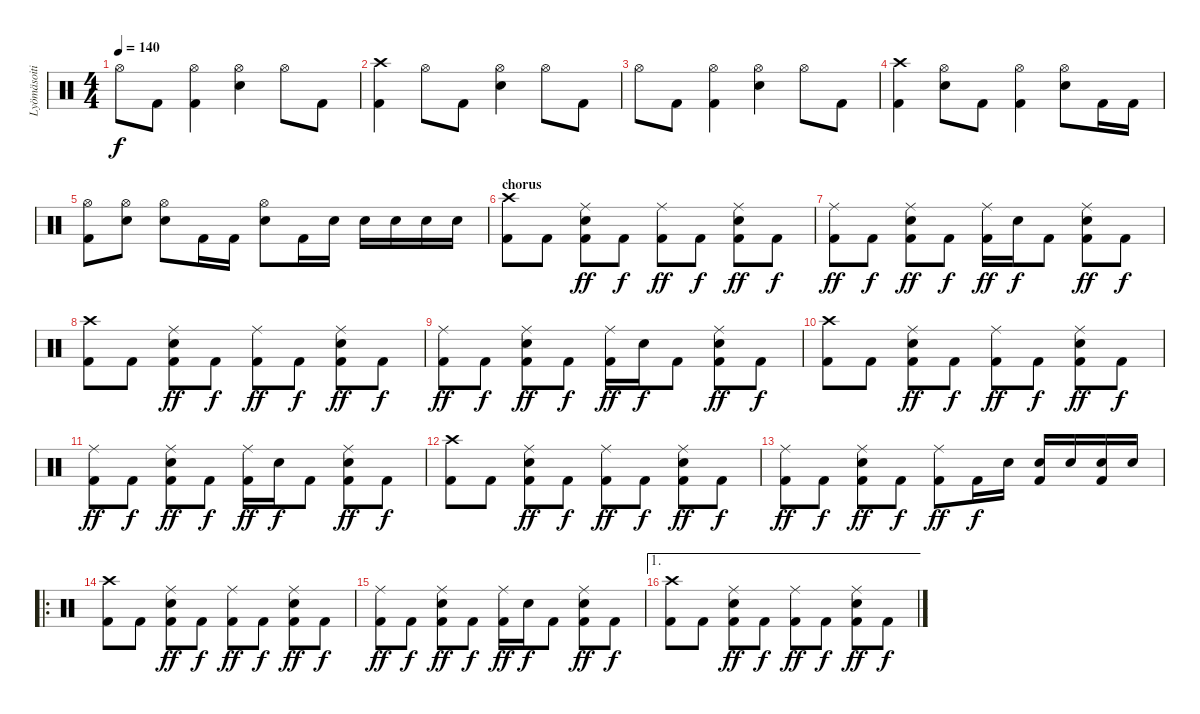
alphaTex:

\track ("Lyömäsoitin" "Lyömäsoiti") {instrument percussion}
\staff {score}
\articulation defaults
\ts (4 4)
\tempo 140
\clef neutral
\ks c "Hi-Hat (open)".8{dy f} "Kick (hit) 2".8
("Kick (hit) 2" "Hi-Hat (open)").4 ("Hi-Hat (open)" "Snare (hit) 2").4 "Hi-Hat (open)".8 "Kick (hit) 2".8 |
("Kick (hit) 2" "Crash high (hit)").4 "Hi-Hat (open)".8 "Kick (hit) 2".8 ("Hi-Hat (open)" "Snare (hit) 2").4 "Hi-Hat (open)".8 "Kick (hit) 2".8 |
"Hi-Hat (open)".8 "Kick (hit) 2".8 ("Kick (hit) 2" "Hi-Hat (open)").4 ("Hi-Hat (open)" "Snare (hit) 2").4 "Hi-Hat (open)".8 "Kick (hit) 2".8 |
("Kick (hit) 2" "Crash high (hit)").4 ("Hi-Hat (open)" "Snare (hit) 2").8 "Kick (hit) 2".8 ("Kick (hit) 2" "Hi-Hat (open)").4 ("Hi-Hat (open)" "Snare (hit) 2").8 "Kick (hit) 2".16 "Kick (hit) 2".16 |
("Kick (hit) 2" "Hi-Hat (open)").8 ("Hi-Hat (open)" "Snare (hit) 2").8 ("Hi-Hat (open)" "Snare (hit) 2").8 "Kick (hit) 2".16 "Kick (hit) 2".16 ("Hi-Hat (open)" "Snare (hit) 2").8 "Kick (hit) 2".16 "Snare (hit) 2".16 "Snare (hit) 2".16 "Snare (hit) 2".16 "Snare (hit) 2".16 "Snare (hit) 2".16 |
\section ("" "chorus")
("Kick (hit) 2" "Crash high (hit)").8 "Kick (hit) 2".8 ("Kick (hit) 2" "Ride (middle)" "Snare (hit) 2").8{dy ff} "Kick (hit) 2".8{dy f} ("Kick (hit) 2" "Ride (middle)").8{dy ff} "Kick (hit) 2".8{dy f} ("Kick (hit) 2" "Ride (middle)" "Snare (hit) 2").8{dy ff} "Kick (hit) 2".8{dy f} |
("Kick (hit) 2" "Ride (middle)").8{dy ff} "Kick (hit) 2".8{dy f} ("Kick (hit) 2" "Ride (middle)" "Snare (hit) 2").8{dy ff} "Kick (hit) 2".8{dy f} ("Kick (hit) 2" "Ride (middle)").16{dy ff} "Snare (hit) 2".16{dy f} "Kick (hit) 2".8 ("Kick (hit) 2" "Ride (middle)" "Snare (hit) 2").8{dy ff} "Kick (hit) 2".8{dy f} |
("Kick (hit) 2" "Crash high (hit)").8 "Kick (hit) 2".8 ("Kick (hit) 2" "Ride (middle)" "Snare (hit) 2").8{dy ff} "Kick (hit) 2".8{dy f} ("Kick (hit) 2" "Ride (middle)").8{dy ff} "Kick (hit) 2".8{dy f} ("Kick (hit) 2" "Ride (middle)" "Snare (hit) 2").8{dy ff} "Kick (hit) 2".8{dy f} |
("Kick (hit) 2" "Ride (middle)").8{dy ff} "Kick (hit) 2".8{dy f} ("Kick (hit) 2" "Ride (middle)" "Snare (hit) 2").8{dy ff} "Kick (hit) 2".8{dy f} ("Kick (hit) 2" "Ride (middle)").16{dy ff} "Snare (hit) 2".16{dy f} "Kick (hit) 2".8 ("Kick (hit) 2" "Ride (middle)" "Snare (hit) 2").8{dy ff} "Kick (hit) 2".8{dy f} |
("Kick (hit) 2" "Crash high (hit)").8 "Kick (hit) 2".8 ("Kick (hit) 2" "Ride (middle)" "Snare (hit) 2").8{dy ff} "Kick (hit) 2".8{dy f} ("Kick (hit) 2" "Ride (middle)").8{dy ff} "Kick (hit) 2".8{dy f} ("Kick (hit) 2" "Ride (middle)" "Snare (hit) 2").8{dy ff} "Kick (hit) 2".8{dy f} |
("Kick (hit) 2" "Ride (middle)").8{dy ff} "Kick (hit) 2".8{dy f} ("Kick (hit) 2" "Ride (middle)" "Snare (hit) 2").8{dy ff} "Kick (hit) 2".8{dy f} ("Kick (hit) 2" "Ride (middle)").16{dy ff} "Snare (hit) 2".16{dy f} "Kick (hit) 2".8 ("Kick (hit) 2" "Ride (middle)" "Snare (hit) 2").8{dy ff} "Kick (hit) 2".8{dy f} |
("Kick (hit) 2" "Crash high (hit)").8 "Kick (hit) 2".8 ("Kick (hit) 2" "Ride (middle)" "Snare (hit) 2").8{dy ff} "Kick (hit) 2".8{dy f} ("Kick (hit) 2" "Ride (middle)").8{dy ff} "Kick (hit) 2".8{dy f} ("Kick (hit) 2" "Ride (middle)" "Snare (hit) 2").8{dy ff} "Kick (hit) 2".8{dy f} |
("Kick (hit) 2" "Ride (middle)").8{dy ff} "Kick (hit) 2".8{dy f} ("Kick (hit) 2" "Ride (middle)" "Snare (hit) 2").8{dy ff} "Kick (hit) 2".8{dy f} ("Kick (hit) 2" "Ride (middle)").8{dy ff} "Kick (hit) 2".16{dy f} "Snare (hit) 2".16 ("Kick (hit) 2" "Snare (hit) 2").16 "Snare (hit) 2".16 ("Kick (hit) 2" "Snare (hit) 2").16 "Snare (hit) 2".16 |
\ro
("Kick (hit) 2" "Crash high (hit)").8 "Kick (hit) 2".8 ("Kick (hit) 2" "Ride (middle)" "Snare (hit) 2").8{dy ff} "Kick (hit) 2".8{dy f} ("Kick (hit) 2" "Ride (middle)").8{dy ff} "Kick (hit) 2".8{dy f} ("Kick (hit) 2" "Ride (middle)" "Snare (hit) 2").8{dy ff} "Kick (hit) 2".8{dy f} |
("Kick (hit) 2" "Ride (middle)").8{dy ff} "Kick (hit) 2".8{dy f} ("Kick (hit) 2" "Ride (middle)" "Snare (hit) 2").8{dy ff} "Kick (hit) 2".8{dy f} ("Kick (hit) 2" "Ride (middle)").16{dy ff} "Snare (hit) 2".16{dy f} "Kick (hit) 2".8 ("Kick (hit) 2" "Ride (middle)" "Snare (hit) 2").8{dy ff} "Kick (hit) 2".8{dy f} |
\ae 1
("Kick (hit) 2" "Crash high (hit)").8 "Kick (hit) 2".8 ("Kick (hit) 2" "Ride (middle)" "Snare (hit) 2").8{dy ff} "Kick (hit) 2".8{dy f} ("Kick (hit) 2" "Ride (middle)").8{dy ff} "Kick (hit) 2".8{dy f} ("Kick (hit) 2" "Ride (middle)" "Snare (hit) 2").8{dy ff} "Kick (hit) 2".8{dy f}
